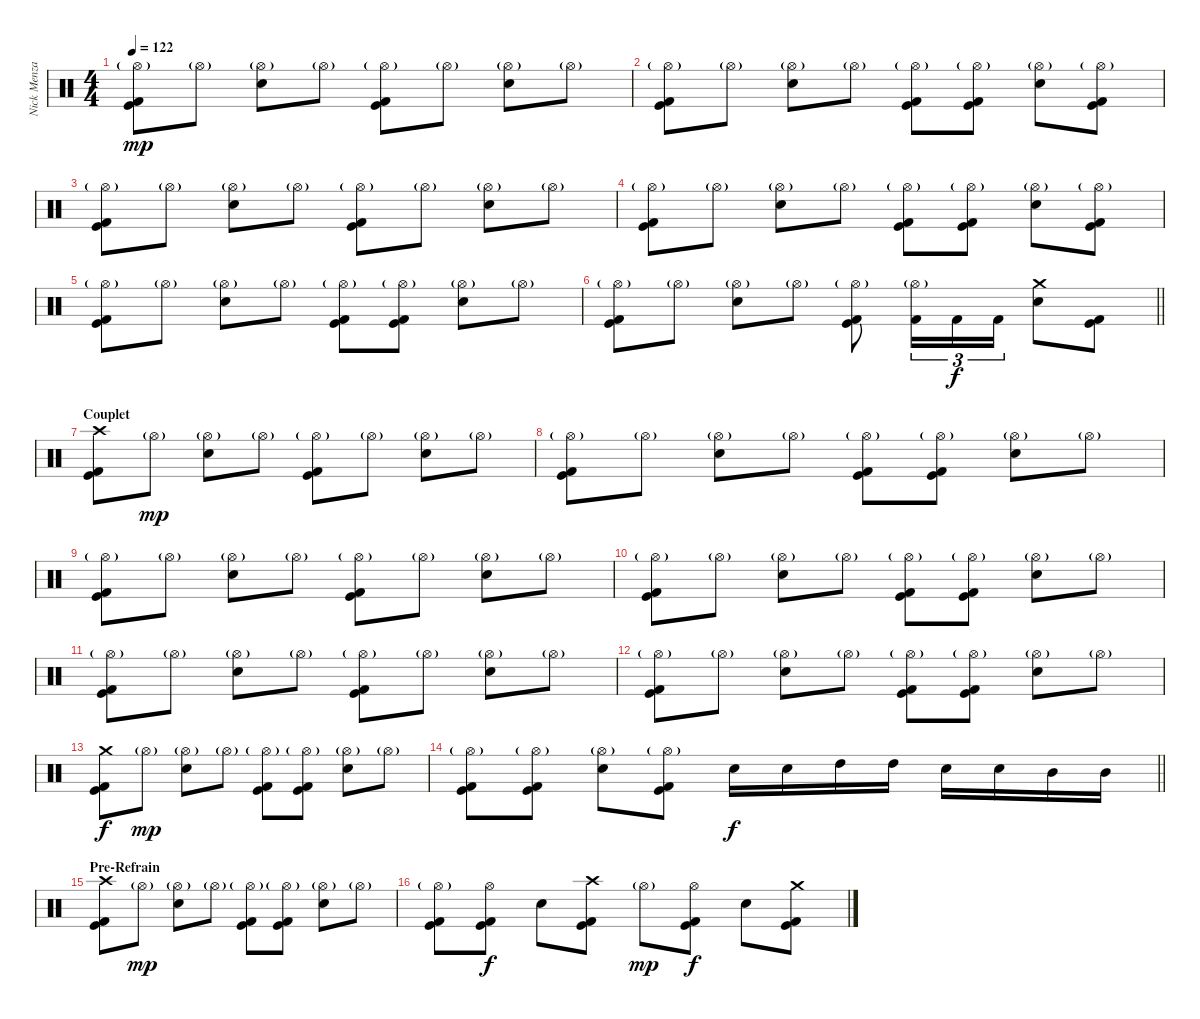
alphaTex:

\track ("Nick Menza" "Nick Menza") {instrument percussion}
\staff {score}
\articulation defaults
\ts (4 4)
\tempo 122
\clef neutral
\ks c
("Hi-Hat (open)"{g} "Kick (hit)" "Kick (hit) 2").8{dy mp} "Hi-Hat (open)"{g}.8 ("Hi-Hat (open)"{g} "Electric Snare (hit)").8 "Hi-Hat (open)"{g}.8 ("Hi-Hat (open)"{g} "Kick (hit)" "Kick (hit) 2").8 "Hi-Hat (open)"{g}.8 ("Hi-Hat (open)"{g} "Electric Snare (hit)").8 "Hi-Hat (open)"{g}.8 |
("Hi-Hat (open)"{g} "Kick (hit)" "Kick (hit) 2").8 "Hi-Hat (open)"{g}.8 ("Hi-Hat (open)"{g} "Electric Snare (hit)").8 "Hi-Hat (open)"{g}.8 ("Hi-Hat (open)"{g} "Kick (hit)" "Kick (hit) 2").8 ("Hi-Hat (open)"{g} "Kick (hit)" "Kick (hit) 2").8 ("Hi-Hat (open)"{g} "Electric Snare (hit)").8 ("Hi-Hat (open)"{g} "Kick (hit)" "Kick (hit) 2").8 |
("Hi-Hat (open)"{g} "Kick (hit)" "Kick (hit) 2").8 "Hi-Hat (open)"{g}.8 ("Hi-Hat (open)"{g} "Electric Snare (hit)").8 "Hi-Hat (open)"{g}.8 ("Hi-Hat (open)"{g} "Kick (hit)" "Kick (hit) 2").8 "Hi-Hat (open)"{g}.8 ("Hi-Hat (open)"{g} "Electric Snare (hit)").8 "Hi-Hat (open)"{g}.8 |
("Hi-Hat (open)"{g} "Kick (hit)" "Kick (hit) 2").8 "Hi-Hat (open)"{g}.8 ("Hi-Hat (open)"{g} "Electric Snare (hit)").8 "Hi-Hat (open)"{g}.8 ("Hi-Hat (open)"{g} "Kick (hit)" "Kick (hit) 2").8 ("Hi-Hat (open)"{g} "Kick (hit)" "Kick (hit) 2").8 ("Hi-Hat (open)"{g} "Electric Snare (hit)").8 ("Hi-Hat (open)"{g} "Kick (hit)" "Kick (hit) 2").8 |
("Hi-Hat (open)"{g} "Kick (hit)" "Kick (hit) 2").8 "Hi-Hat (open)"{g}.8 ("Hi-Hat (open)"{g} "Electric Snare (hit)").8 "Hi-Hat (open)"{g}.8 ("Hi-Hat (open)"{g} "Kick (hit)" "Kick (hit) 2").8 ("Hi-Hat (open)"{g} "Kick (hit)" "Kick (hit) 2").8 ("Hi-Hat (open)"{g} "Electric Snare (hit)").8 "Hi-Hat (open)"{g}.8 |
\barLineRight lightlight
("Hi-Hat (open)"{g} "Kick (hit)" "Kick (hit) 2").8 "Hi-Hat (open)"{g}.8 ("Hi-Hat (open)"{g} "Electric Snare (hit)").8 "Hi-Hat (open)"{g}.8 ("Hi-Hat (open)"{g} "Kick (hit)" "Kick (hit) 2").8 ("Hi-Hat (open)"{g} "Kick (hit) 2").16{tu (3 2)} "Kick (hit) 2".16{tu (3 2) dy f} "Kick (hit) 2".16{tu (3 2)} ("Crash medium (hit)" "Electric Snare (hit)").8 ("Kick (hit)" "Kick (hit) 2").8 |
\section ("" "Couplet")
("Crash high (hit)" "Kick (hit)" "Kick (hit) 2").8 "Hi-Hat (open)"{g}.8{dy mp} ("Hi-Hat (open)"{g} "Electric Snare (hit)").8 "Hi-Hat (open)"{g}.8 ("Hi-Hat (open)"{g} "Kick (hit)" "Kick (hit) 2").8 "Hi-Hat (open)"{g}.8 ("Hi-Hat (open)"{g} "Electric Snare (hit)").8 "Hi-Hat (open)"{g}.8 |
("Hi-Hat (open)"{g} "Kick (hit)" "Kick (hit) 2").8 "Hi-Hat (open)"{g}.8 ("Hi-Hat (open)"{g} "Electric Snare (hit)").8 "Hi-Hat (open)"{g}.8 ("Hi-Hat (open)"{g} "Kick (hit)" "Kick (hit) 2").8 ("Hi-Hat (open)"{g} "Kick (hit)" "Kick (hit) 2").8 ("Hi-Hat (open)"{g} "Electric Snare (hit)").8 "Hi-Hat (open)"{g}.8 |
("Hi-Hat (open)"{g} "Kick (hit)" "Kick (hit) 2").8 "Hi-Hat (open)"{g}.8 ("Hi-Hat (open)"{g} "Electric Snare (hit)").8 "Hi-Hat (open)"{g}.8 ("Hi-Hat (open)"{g} "Kick (hit)" "Kick (hit) 2").8 "Hi-Hat (open)"{g}.8 ("Hi-Hat (open)"{g} "Electric Snare (hit)").8 "Hi-Hat (open)"{g}.8 |
("Hi-Hat (open)"{g} "Kick (hit)" "Kick (hit) 2").8 "Hi-Hat (open)"{g}.8 ("Hi-Hat (open)"{g} "Electric Snare (hit)").8 "Hi-Hat (open)"{g}.8 ("Hi-Hat (open)"{g} "Kick (hit)" "Kick (hit) 2").8 ("Hi-Hat (open)"{g} "Kick (hit)" "Kick (hit) 2").8 ("Hi-Hat (open)"{g} "Electric Snare (hit)").8 "Hi-Hat (open)"{g}.8 |
("Hi-Hat (open)"{g} "Kick (hit)" "Kick (hit) 2").8 "Hi-Hat (open)"{g}.8 ("Hi-Hat (open)"{g} "Electric Snare (hit)").8 "Hi-Hat (open)"{g}.8 ("Hi-Hat (open)"{g} "Kick (hit)" "Kick (hit) 2").8 "Hi-Hat (open)"{g}.8 ("Hi-Hat (open)"{g} "Electric Snare (hit)").8 "Hi-Hat (open)"{g}.8 |
("Hi-Hat (open)"{g} "Kick (hit)" "Kick (hit) 2").8 "Hi-Hat (open)"{g}.8 ("Hi-Hat (open)"{g} "Electric Snare (hit)").8 "Hi-Hat (open)"{g}.8 ("Hi-Hat (open)"{g} "Kick (hit)" "Kick (hit) 2").8 ("Hi-Hat (open)"{g} "Kick (hit)" "Kick (hit) 2").8 ("Hi-Hat (open)"{g} "Electric Snare (hit)").8 "Hi-Hat (open)"{g}.8 |
("Crash medium (hit)" "Kick (hit)" "Kick (hit) 2").8{dy f} "Hi-Hat (open)"{g}.8{dy mp} ("Hi-Hat (open)"{g} "Electric Snare (hit)").8 "Hi-Hat (open)"{g}.8 ("Hi-Hat (open)"{g} "Kick (hit)" "Kick (hit) 2").8 ("Hi-Hat (open)"{g} "Kick (hit)" "Kick (hit) 2").8 ("Hi-Hat (open)"{g} "Electric Snare (hit)").8 "Hi-Hat (open)"{g}.8 |
\barLineRight lightlight
("Hi-Hat (open)"{g} "Kick (hit)" "Kick (hit) 2").8 ("Hi-Hat (open)"{g} "Kick (hit)" "Kick (hit) 2").8 ("Hi-Hat (open)"{g} "Electric Snare (hit)").8 ("Hi-Hat (open)"{g} "Kick (hit)" "Kick (hit) 2").8 "Electric Snare (hit)".16{dy f} "Electric Snare (hit)".16 "High Tom (hit)".16 "High Tom (hit)".16 "Electric Snare (hit)".16 "Electric Snare (hit)".16 "Mid Tom (hit)".16 "Mid Tom (hit)".16 |
\section ("" "Pre-Refrain")
("Crash high (hit)" "Kick (hit)" "Kick (hit) 2").8 "Hi-Hat (open)"{g}.8{dy mp} ("Hi-Hat (open)"{g} "Electric Snare (hit)").8 "Hi-Hat (open)"{g}.8 ("Hi-Hat (open)"{g} "Kick (hit)" "Kick (hit) 2").8 ("Hi-Hat (open)"{g} "Kick (hit)" "Kick (hit) 2").8 ("Hi-Hat (open)"{g} "Electric Snare (hit)").8 "Hi-Hat (open)"{g}.8 |
("Hi-Hat (open)"{g} "Kick (hit)" "Kick (hit) 2").8 ("Hi-Hat (open)" "Kick (hit)" "Kick (hit) 2").8{dy f} "Electric Snare (hit)".8 ("Crash high (hit)" "Kick (hit)" "Kick (hit) 2").8 "Hi-Hat (open)"{g}.8{dy mp} ("Hi-Hat (open)" "Kick (hit)" "Kick (hit) 2").8{dy f} "Electric Snare (hit)".8 ("Crash medium (hit)" "Kick (hit)" "Kick (hit) 2").8
